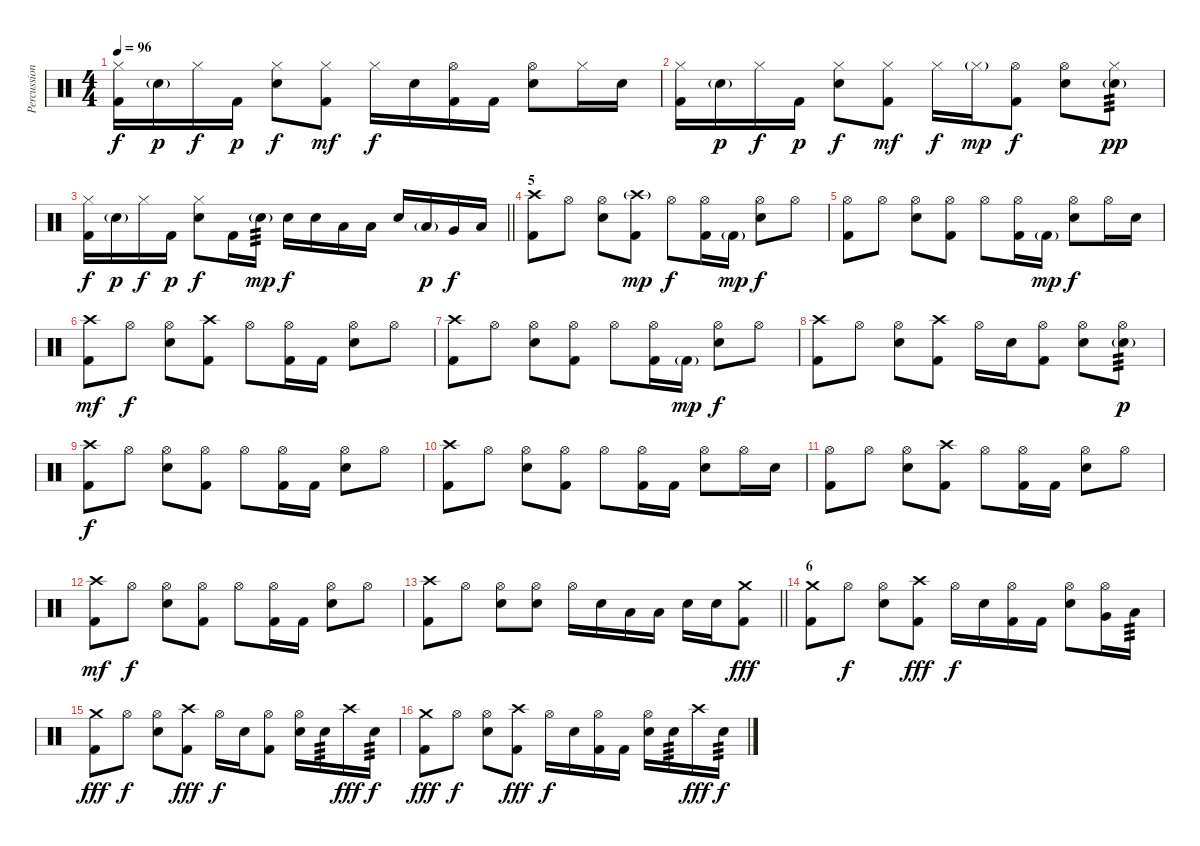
\track ("Percussion" "Percussion") {instrument percussion}
\staff {score}
\articulation defaults
\ts (4 4)
\tempo 96
\clef neutral
\ks c
("Hi-Hat (closed)" "Kick (hit) 2").16{dy f} "Snare (hit) 2"{g}.16{dy p} "Hi-Hat (closed)".16{dy f} "Kick (hit) 2".16{dy p} ("Hi-Hat (closed)" "Snare (hit) 2").8{dy f} ("Hi-Hat (closed)" "Kick (hit) 2").8{dy mf} "Hi-Hat (closed)".16{dy f} "Snare (hit) 2".16 ("Hi-Hat (open)" "Kick (hit) 2").16 "Kick (hit) 2".16 ("Hi-Hat (open)" "Snare (hit) 2").8 "Hi-Hat (closed)".16 "Snare (hit) 2".16 |
("Hi-Hat (closed)" "Kick (hit) 2").16 "Snare (hit) 2"{g}.16{dy p} "Hi-Hat (closed)".16{dy f} "Kick (hit) 2".16{dy p} ("Hi-Hat (closed)" "Snare (hit) 2").8{dy f} ("Hi-Hat (closed)" "Kick (hit) 2").8{dy mf} "Hi-Hat (closed)".16{dy f} "Hi-Hat (closed)"{g}.16{dy mp} ("Hi-Hat (open)" "Kick (hit) 2").8{dy f} ("Hi-Hat (open)" "Snare (hit) 2").8 ("Hi-Hat (closed)" "Snare (hit) 2"{g}).8{tp 3 dy pp} |
\barLineRight lightlight
("Hi-Hat (closed)" "Kick (hit) 2").16{dy f} "Snare (hit) 2"{g}.16{dy p} "Hi-Hat (closed)".16{dy f} "Kick (hit) 2".16{dy p} ("Hi-Hat (closed)" "Snare (hit) 2").8{dy f} "Kick (hit) 2".16 "Snare (hit) 2"{g}.16{tp 3 dy mp} "Snare (hit) 2".16{dy f} "Snare (hit) 2".16 "Low Tom (hit)".16 "Low Tom (hit)".16 "Snare (hit) 2".16 "Low Tom (hit)"{g}.16{dy p} "Very Low Tom (hit)".16{dy f} "Low Floor Tom (hit)".16 |
\section ("" "5")
("Crash high (hit)" "Kick (hit) 2").8 "Hi-Hat (open)".8 ("Hi-Hat (open)" "Snare (hit) 2").8 ("Crash high (hit)"{g} "Kick (hit) 2").8{dy mp} "Hi-Hat (open)".8{dy f} ("Hi-Hat (open)" "Kick (hit) 2").16 "Kick (hit) 2"{g}.16{dy mp} ("Hi-Hat (open)" "Snare (hit) 2").8{dy f} "Hi-Hat (open)".8 |
("Hi-Hat (open)" "Kick (hit) 2").8 "Hi-Hat (open)".8 ("Hi-Hat (open)" "Snare (hit) 2").8 ("Hi-Hat (open)" "Kick (hit) 2").8 "Hi-Hat (open)".8 ("Hi-Hat (open)" "Kick (hit) 2").16 "Kick (hit) 2"{g}.16{dy mp} ("Hi-Hat (open)" "Snare (hit) 2").8{dy f} "Hi-Hat (open)".16 "Snare (hit) 2".16 |
("Crash high (hit)" "Kick (hit) 2").8{dy mf} "Hi-Hat (open)".8{dy f} ("Hi-Hat (open)" "Snare (hit) 2").8 ("Crash high (hit)" "Kick (hit) 2").8 "Hi-Hat (open)".8 ("Hi-Hat (open)" "Kick (hit) 2").16 "Kick (hit) 2".16 ("Hi-Hat (open)" "Snare (hit) 2").8 "Hi-Hat (open)".8 |
("Crash high (hit)" "Kick (hit) 2").8 "Hi-Hat (open)".8 ("Hi-Hat (open)" "Snare (hit) 2").8 ("Hi-Hat (open)" "Kick (hit) 2").8 "Hi-Hat (open)".8 ("Hi-Hat (open)" "Kick (hit) 2").16 "Kick (hit) 2"{g}.16{dy mp} ("Hi-Hat (open)" "Snare (hit) 2").8{dy f} "Hi-Hat (open)".8 |
("Crash high (hit)" "Kick (hit) 2").8 "Hi-Hat (open)".8 ("Hi-Hat (open)" "Snare (hit) 2").8 ("Crash high (hit)" "Kick (hit) 2").8 "Hi-Hat (open)".16 "Snare (hit) 2".16 ("Hi-Hat (open)" "Kick (hit) 2").8 ("Hi-Hat (open)" "Snare (hit) 2").8 ("Hi-Hat (open)" "Snare (hit) 2"{g}).8{tp 3 dy p} |
("Crash high (hit)" "Kick (hit) 2").8{dy f} "Hi-Hat (open)".8 ("Hi-Hat (open)" "Snare (hit) 2").8 ("Hi-Hat (open)" "Kick (hit) 2").8 "Hi-Hat (open)".8 ("Hi-Hat (open)" "Kick (hit) 2").16 "Kick (hit) 2".16 ("Hi-Hat (open)" "Snare (hit) 2").8 "Hi-Hat (open)".8 |
("Crash high (hit)" "Kick (hit) 2").8 "Hi-Hat (open)".8 ("Hi-Hat (open)" "Snare (hit) 2").8 ("Hi-Hat (open)" "Kick (hit) 2").8 "Hi-Hat (open)".8 ("Hi-Hat (open)" "Kick (hit) 2").16 "Kick (hit) 2".16 ("Hi-Hat (open)" "Snare (hit) 2").8 "Hi-Hat (open)".16 "Snare (hit) 2".16 |
("Hi-Hat (open)" "Kick (hit) 2").8 "Hi-Hat (open)".8 ("Hi-Hat (open)" "Snare (hit) 2").8 ("Crash high (hit)" "Kick (hit) 2").8 "Hi-Hat (open)".8 ("Hi-Hat (open)" "Kick (hit) 2").16 "Kick (hit) 2".16 ("Hi-Hat (open)" "Snare (hit) 2").8 "Hi-Hat (open)".8 |
("Crash high (hit)" "Kick (hit) 2").8{dy mf} "Hi-Hat (open)".8{dy f} ("Hi-Hat (open)" "Snare (hit) 2").8 ("Hi-Hat (open)" "Kick (hit) 2").8 "Hi-Hat (open)".8 ("Hi-Hat (open)" "Kick (hit) 2").16 "Kick (hit) 2".16 ("Hi-Hat (open)" "Snare (hit) 2").8 "Hi-Hat (open)".8 |
\barLineRight lightlight
("Crash high (hit)" "Kick (hit) 2").8 "Hi-Hat (open)".8 ("Hi-Hat (open)" "Snare (hit) 2").8 ("Hi-Hat (open)" "Snare (hit) 2").8 "Hi-Hat (open)".16 "Snare (hit) 2".16 "Low Floor Tom (hit)".16 "Low Floor Tom (hit)".16 "Snare (hit) 2".16 "Snare (hit) 2".16 ("Crash medium (hit)" "Kick (hit) 2").8{dy fff} |
\section ("" "6")
("Crash medium (hit)" "Kick (hit) 2").8 "Hi-Hat (open)".8{dy f} ("Hi-Hat (open)" "Snare (hit) 2").8 ("Crash high (hit)" "Kick (hit) 2").8{dy fff} "Hi-Hat (open)".16{dy f} "Snare (hit) 2".16 ("Hi-Hat (open)" "Kick (hit) 2").16 "Kick (hit) 2".16 ("Hi-Hat (open)" "Snare (hit) 2").8 ("Hi-Hat (open)" "Very Low Tom (hit)").16 "Low Floor Tom (hit)".16{tp 3} |
("Crash medium (hit)" "Kick (hit) 2").8{dy fff} "Hi-Hat (open)".8{dy f} ("Hi-Hat (open)" "Snare (hit) 2").8 ("Crash high (hit)" "Kick (hit) 2").8{dy fff} "Hi-Hat (open)".16{dy f} "Snare (hit) 2".16 ("Hi-Hat (open)" "Kick (hit) 2").8 ("Hi-Hat (open)" "Snare (hit) 2").16 "Snare (hit) 2".16{tp 3} "Crash high (hit)".16{dy fff} "Snare (hit) 2".16{tp 3 dy f} |
("Crash medium (hit)" "Kick (hit) 2").8{dy fff} "Hi-Hat (open)".8{dy f} ("Hi-Hat (open)" "Snare (hit) 2").8 ("Crash high (hit)" "Kick (hit) 2").8{dy fff} "Hi-Hat (open)".16{dy f} "Snare (hit) 2".16 ("Hi-Hat (open)" "Kick (hit) 2").16 "Kick (hit) 2".16 ("Hi-Hat (open)" "Snare (hit) 2").16 "Snare (hit) 2".16{tp 3} "Crash high (hit)".16{dy fff} "Snare (hit) 2".16{tp 3 dy f}
